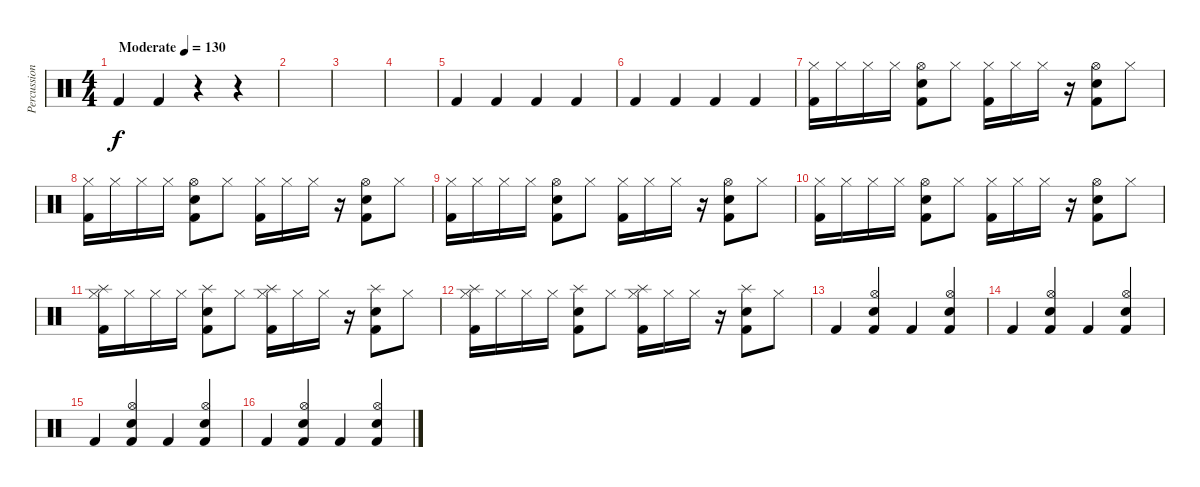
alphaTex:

\track ("Percussion" "Percussion") {instrument percussion}
\staff {score}
\articulation defaults
\ts (4 4)
\tempo (130 "Moderate")
\clef neutral
\ks c "Kick (hit) 2".4{dy f} "Kick (hit) 2".4
r.4 r.4 |
|
|
|
"Kick (hit) 2".4 "Kick (hit) 2".4 "Kick (hit) 2".4 "Kick (hit) 2".4 |
"Kick (hit) 2".4 "Kick (hit) 2".4 "Kick (hit) 2".4 "Kick (hit) 2".4 |
("Hi-Hat (closed)" "Kick (hit) 2").16 "Hi-Hat (closed)".16 "Hi-Hat (closed)".16 "Hi-Hat (closed)".16 ("Hi-Hat (open)" "Electric Snare (hit)" "Kick (hit) 2").8 "Hi-Hat (closed)".8 ("Hi-Hat (closed)" "Kick (hit) 2").16 "Hi-Hat (closed)".16 "Hi-Hat (closed)".16 r.16 ("Hi-Hat (open)" "Electric Snare (hit)" "Kick (hit) 2").8 "Hi-Hat (closed)".8 |
("Hi-Hat (closed)" "Kick (hit) 2").16 "Hi-Hat (closed)".16 "Hi-Hat (closed)".16 "Hi-Hat (closed)".16 ("Hi-Hat (open)" "Electric Snare (hit)" "Kick (hit) 2").8 "Hi-Hat (closed)".8 ("Hi-Hat (closed)" "Kick (hit) 2").16 "Hi-Hat (closed)".16 "Hi-Hat (closed)".16 r.16 ("Hi-Hat (open)" "Electric Snare (hit)" "Kick (hit) 2").8 "Hi-Hat (closed)".8 |
("Hi-Hat (closed)" "Kick (hit) 2").16 "Hi-Hat (closed)".16 "Hi-Hat (closed)".16 "Hi-Hat (closed)".16 ("Hi-Hat (open)" "Electric Snare (hit)" "Kick (hit) 2").8 "Hi-Hat (closed)".8 ("Hi-Hat (closed)" "Kick (hit) 2").16 "Hi-Hat (closed)".16 "Hi-Hat (closed)".16 r.16 ("Hi-Hat (open)" "Electric Snare (hit)" "Kick (hit) 2").8 "Hi-Hat (closed)".8 |
("Hi-Hat (closed)" "Kick (hit) 2").16 "Hi-Hat (closed)".16 "Hi-Hat (closed)".16 "Hi-Hat (closed)".16 ("Hi-Hat (open)" "Electric Snare (hit)" "Kick (hit) 2").8 "Hi-Hat (closed)".8 ("Hi-Hat (closed)" "Kick (hit) 2").16 "Hi-Hat (closed)".16 "Hi-Hat (closed)".16 r.16 ("Hi-Hat (open)" "Electric Snare (hit)" "Kick (hit) 2").8 "Hi-Hat (closed)".8 |
("Splash (hit)" "Hi-Hat (closed)" "Kick (hit) 2").16 "Hi-Hat (closed)".16 "Hi-Hat (closed)".16 "Hi-Hat (closed)".16 ("Splash (hit)" "Electric Snare (hit)" "Kick (hit) 2").8 "Hi-Hat (closed)".8 ("Splash (hit)" "Hi-Hat (closed)" "Kick (hit) 2").16 "Hi-Hat (closed)".16 "Hi-Hat (closed)".16 r.16 ("Splash (hit)" "Electric Snare (hit)" "Kick (hit) 2").8 "Hi-Hat (closed)".8 |
("Splash (hit)" "Hi-Hat (closed)" "Kick (hit) 2").16 "Hi-Hat (closed)".16 "Hi-Hat (closed)".16 "Hi-Hat (closed)".16 ("Splash (hit)" "Electric Snare (hit)" "Kick (hit) 2").8 "Hi-Hat (closed)".8 ("Splash (hit)" "Hi-Hat (closed)" "Kick (hit) 2").16 "Hi-Hat (closed)".16 "Hi-Hat (closed)".16 r.16 ("Splash (hit)" "Electric Snare (hit)" "Kick (hit) 2").8 "Hi-Hat (closed)".8 |
"Kick (hit) 2".4 ("Hi-Hat (open)" "Electric Snare (hit)" "Kick (hit) 2").4 "Kick (hit) 2".4 ("Hi-Hat (open)" "Electric Snare (hit)" "Kick (hit) 2").4 |
"Kick (hit) 2".4 ("Hi-Hat (open)" "Electric Snare (hit)" "Kick (hit) 2").4 "Kick (hit) 2".4 ("Hi-Hat (open)" "Electric Snare (hit)" "Kick (hit) 2").4 |
"Kick (hit) 2".4 ("Hi-Hat (open)" "Electric Snare (hit)" "Kick (hit) 2").4 "Kick (hit) 2".4 ("Hi-Hat (open)" "Electric Snare (hit)" "Kick (hit) 2").4 |
"Kick (hit) 2".4 ("Hi-Hat (open)" "Electric Snare (hit)" "Kick (hit) 2").4 "Kick (hit) 2".4 ("Hi-Hat (open)" "Electric Snare (hit)" "Kick (hit) 2").4
